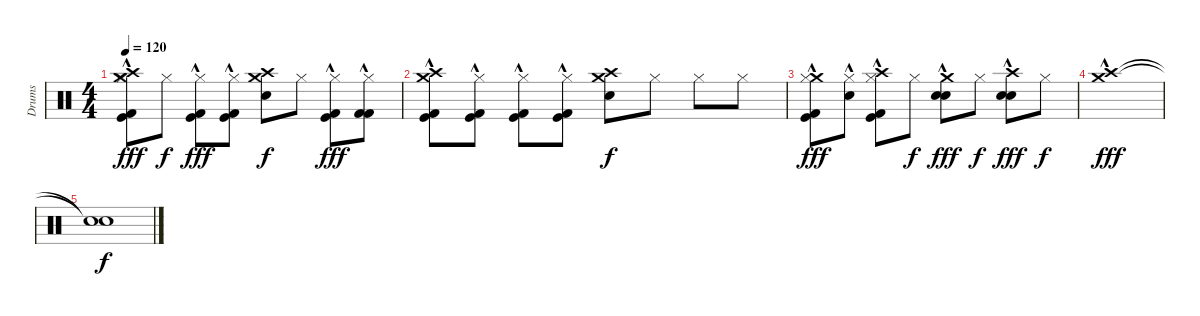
\track ("Drums" "Drums") {instrument percussion}
\staff {score}
\articulation defaults
\ts (4 4)
\tempo 120
\clef neutral
\ks c
("Crash medium (hit)" "Crash high (hit)" "Hi-Hat (closed)" "Kick (hit) 2" "Kick (hit)"{hac}).8{dy fff} "Hi-Hat (closed)".8{dy f} ("Hi-Hat (closed)" "Kick (hit) 2" "Kick (hit)"{hac}).8{dy fff} ("Hi-Hat (closed)" "Kick (hit) 2" "Kick (hit)"{hac}).8 ("Crash medium (hit)" "Crash high (hit)" "Snare (hit) 2").8{dy f} "Hi-Hat (closed)".8 ("Hi-Hat (closed)" "Kick (hit) 2" "Kick (hit)"{hac}).8{dy fff} ("Hi-Hat (closed)" "Kick (hit) 2" "Kick (hit) 2"{hac}).8 |
("Crash medium (hit)" "Crash high (hit)" "Kick (hit) 2" "Kick (hit)"{hac}).8 ("Hi-Hat (closed)" "Kick (hit) 2" "Kick (hit)"{hac}).8 ("Hi-Hat (closed)" "Kick (hit) 2" "Kick (hit)"{hac}).8 ("Hi-Hat (closed)" "Kick (hit) 2" "Kick (hit)"{hac}).8 ("Crash medium (hit)" "Crash high (hit)" "Snare (hit) 2").8{dy f} "Hi-Hat (closed)".8 "Hi-Hat (closed)".8 "Hi-Hat (closed)".8 |
("Crash medium (hit)"{hac} "Hi-Hat (closed)" "Kick (hit) 2"{hac} "Kick (hit)"{hac}).8{dy fff} ("Hi-Hat (closed)" "Snare (hit) 2"{hac}).8 ("Crash high (hit)"{hac} "Hi-Hat (closed)" "Kick (hit) 2"{hac} "Kick (hit)"{hac}).8 "Hi-Hat (closed)".8{dy f} ("Crash medium (hit)"{hac} "Snare (hit) 2"{hac} "Snare (hit) 2"{hac}).8{dy fff} "Hi-Hat (closed)".8{dy f} ("Crash high (hit)"{hac} "Snare (hit) 2"{hac} "Snare (hit) 2"{hac}).8{dy fff} "Hi-Hat (closed)".8{dy f} |
("Crash medium (hit)"{hac} "Crash high (hit)"{hac}).1{dy fff} |
("Snare (hit)"{t} "Snare (hit)"{t}).1{dy f}
